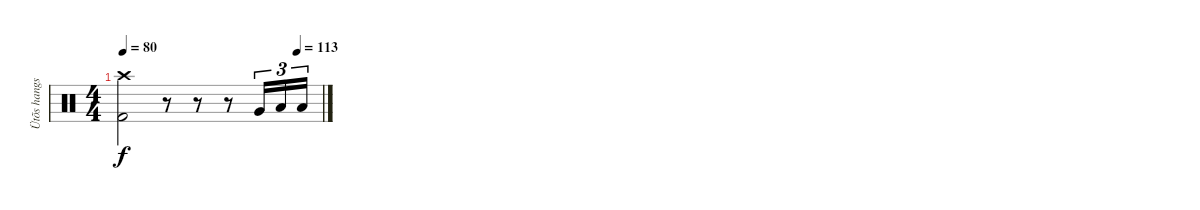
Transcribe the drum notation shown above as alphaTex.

\track ("Ütõs hangszer" "Ütõs hangs") {instrument percussion}
\staff {score}
\articulation defaults
\ts (4 4)
\tempo 80
\tempo (113 0.875)
\clef neutral
\ks c
("Crash high (hit)" "Kick (hit) 2").2{dy f} r.8 r.8 r.8 "Very Low Tom (hit)".16{tu (3 2)} "Low Floor Tom (hit)".16{tu (3 2)} "Low Floor Tom (hit)".16{tu (3 2)}
